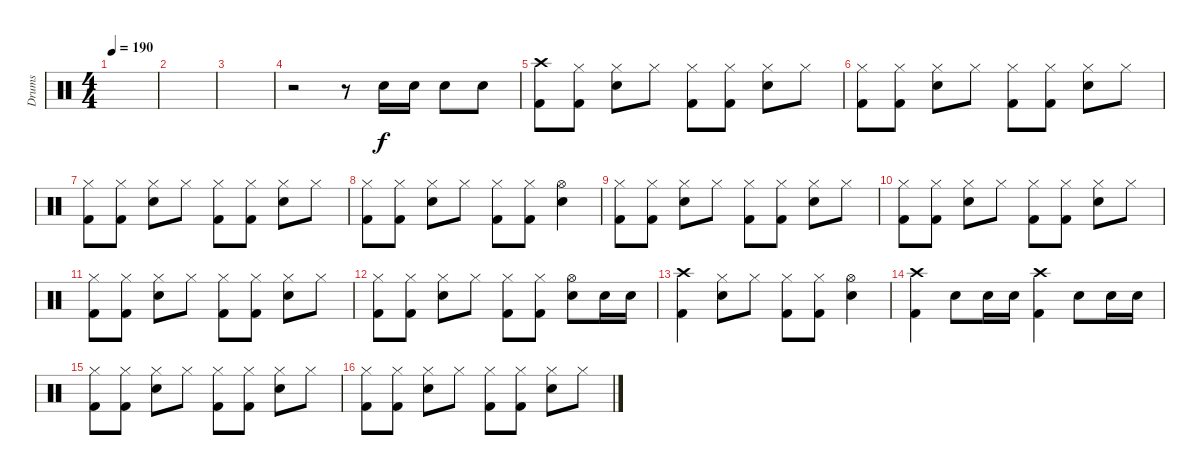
\track ("Drums" "Drums") {instrument percussion}
\staff {score}
\articulation defaults
\ts (4 4)
\tempo 190
\clef neutral
\ks c
|
|
|
r.2 r.8 "Snare (hit) 2".16 "Snare (hit) 2".16 "Snare (hit) 2".8 "Snare (hit) 2".8 |
("Kick (hit) 2" "Crash high (hit)").8 ("Kick (hit) 2" "Hi-Hat (closed)").8 ("Snare (hit) 2" "Hi-Hat (closed)").8 "Hi-Hat (closed)".8 ("Kick (hit) 2" "Hi-Hat (closed)").8 ("Kick (hit) 2" "Hi-Hat (closed)").8 ("Snare (hit) 2" "Hi-Hat (closed)").8 "Hi-Hat (closed)".8 |
("Kick (hit) 2" "Hi-Hat (closed)").8 ("Kick (hit) 2" "Hi-Hat (closed)").8 ("Snare (hit) 2" "Hi-Hat (closed)").8 "Hi-Hat (closed)".8 ("Kick (hit) 2" "Hi-Hat (closed)").8 ("Kick (hit) 2" "Hi-Hat (closed)").8 ("Snare (hit) 2" "Hi-Hat (closed)").8 "Hi-Hat (closed)".8 |
("Kick (hit) 2" "Hi-Hat (closed)").8 ("Kick (hit) 2" "Hi-Hat (closed)").8 ("Snare (hit) 2" "Hi-Hat (closed)").8 "Hi-Hat (closed)".8 ("Kick (hit) 2" "Hi-Hat (closed)").8 ("Kick (hit) 2" "Hi-Hat (closed)").8 ("Snare (hit) 2" "Hi-Hat (closed)").8 "Hi-Hat (closed)".8 |
("Kick (hit) 2" "Hi-Hat (closed)").8 ("Kick (hit) 2" "Hi-Hat (closed)").8 ("Snare (hit) 2" "Hi-Hat (closed)").8 "Hi-Hat (closed)".8 ("Kick (hit) 2" "Hi-Hat (closed)").8 ("Kick (hit) 2" "Hi-Hat (closed)").8 ("Snare (hit) 2" "Hi-Hat (open)").4 |
("Kick (hit) 2" "Hi-Hat (closed)").8 ("Kick (hit) 2" "Hi-Hat (closed)").8 ("Snare (hit) 2" "Hi-Hat (closed)").8 "Hi-Hat (closed)".8 ("Kick (hit) 2" "Hi-Hat (closed)").8 ("Kick (hit) 2" "Hi-Hat (closed)").8 ("Snare (hit) 2" "Hi-Hat (closed)").8 "Hi-Hat (closed)".8 |
("Kick (hit) 2" "Hi-Hat (closed)").8 ("Kick (hit) 2" "Hi-Hat (closed)").8 ("Snare (hit) 2" "Hi-Hat (closed)").8 "Hi-Hat (closed)".8 ("Kick (hit) 2" "Hi-Hat (closed)").8 ("Kick (hit) 2" "Hi-Hat (closed)").8 ("Snare (hit) 2" "Hi-Hat (closed)").8 "Hi-Hat (closed)".8 |
("Kick (hit) 2" "Hi-Hat (closed)").8 ("Kick (hit) 2" "Hi-Hat (closed)").8 ("Snare (hit) 2" "Hi-Hat (closed)").8 "Hi-Hat (closed)".8 ("Kick (hit) 2" "Hi-Hat (closed)").8 ("Kick (hit) 2" "Hi-Hat (closed)").8 ("Snare (hit) 2" "Hi-Hat (closed)").8 "Hi-Hat (closed)".8 |
("Kick (hit) 2" "Hi-Hat (closed)").8 ("Kick (hit) 2" "Hi-Hat (closed)").8 ("Snare (hit) 2" "Hi-Hat (closed)").8 "Hi-Hat (closed)".8 ("Kick (hit) 2" "Hi-Hat (closed)").8 ("Kick (hit) 2" "Hi-Hat (closed)").8 ("Snare (hit) 2" "Hi-Hat (open)").8 "Snare (hit) 2".16 "Snare (hit) 2".16 |
("Kick (hit) 2" "Crash high (hit)").4 ("Snare (hit) 2" "Hi-Hat (closed)").8 "Hi-Hat (closed)".8 ("Kick (hit) 2" "Hi-Hat (closed)").8 ("Kick (hit) 2" "Hi-Hat (closed)").8 ("Snare (hit) 2" "Hi-Hat (open)").4 |
("Kick (hit) 2" "Crash high (hit)").4 "Snare (hit) 2".8 "Snare (hit) 2".16 "Snare (hit) 2".16 ("Kick (hit) 2" "Crash high (hit)").4 "Snare (hit) 2".8 "Snare (hit) 2".16 "Snare (hit) 2".16 |
("Kick (hit) 2" "Hi-Hat (closed)").8 ("Kick (hit) 2" "Hi-Hat (closed)").8 ("Snare (hit) 2" "Hi-Hat (closed)").8 "Hi-Hat (closed)".8 ("Kick (hit) 2" "Hi-Hat (closed)").8 ("Kick (hit) 2" "Hi-Hat (closed)").8 ("Snare (hit) 2" "Hi-Hat (closed)").8 "Hi-Hat (closed)".8 |
("Kick (hit) 2" "Hi-Hat (closed)").8 ("Kick (hit) 2" "Hi-Hat (closed)").8 ("Snare (hit) 2" "Hi-Hat (closed)").8 "Hi-Hat (closed)".8 ("Kick (hit) 2" "Hi-Hat (closed)").8 ("Kick (hit) 2" "Hi-Hat (closed)").8 ("Snare (hit) 2" "Hi-Hat (closed)").8 "Hi-Hat (closed)".8
